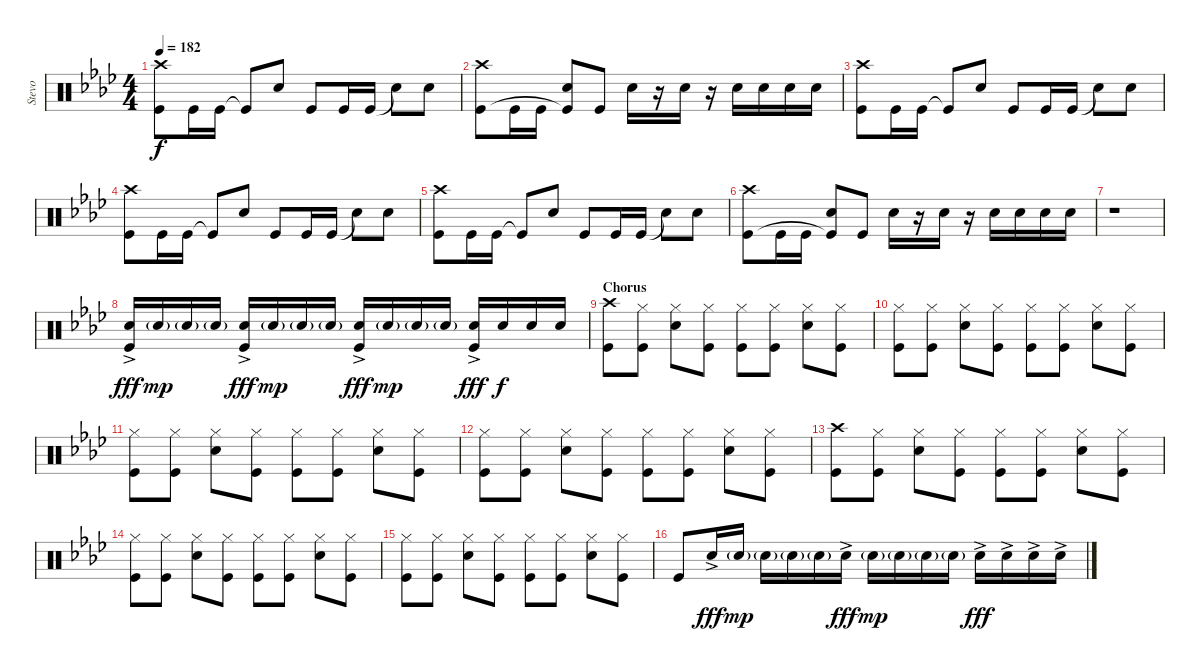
\track ("Stevo" "Stevo") {instrument percussion}
\staff {score}
\articulation defaults
\ts (4 4)
\tempo 182
\clef neutral
\ks ab
("Crash high (hit)" "Kick (hit)").8{dy f} "Kick (hit)".16 "Kick (hit)".16 "Kick (hit)"{t}.8 "Snare (hit) 2".8 "Kick (hit)".8 "Kick (hit)".16 "Kick (hit)".16 "Snare (hit)"{t}.8 "Snare (hit) 2".8 |
("Crash high (hit)" "Kick (hit)").8 "Kick (hit)".16 "Kick (hit)".16 ("Snare (hit) 2" "Kick (hit)"{t}).8 "Kick (hit)".8 "Snare (hit) 2".16 r.16 "Snare (hit) 2".16 r.16 "Snare (hit) 2".16 "Snare (hit) 2".16 "Snare (hit) 2".16 "Snare (hit) 2".16 |
("Crash high (hit)" "Kick (hit)").8 "Kick (hit)".16 "Kick (hit)".16 "Kick (hit)"{t}.8 "Snare (hit) 2".8 "Kick (hit)".8 "Kick (hit)".16 "Kick (hit)".16 "Snare (hit)"{t}.8 "Snare (hit) 2".8 |
("Crash high (hit)" "Kick (hit)").8 "Kick (hit)".16 "Kick (hit)".16 "Kick (hit)"{t}.8 "Snare (hit) 2".8 "Kick (hit)".8 "Kick (hit)".16 "Kick (hit)".16 "Snare (hit)"{t}.8 "Snare (hit) 2".8 |
("Crash high (hit)" "Kick (hit)").8 "Kick (hit)".16 "Kick (hit)".16 "Kick (hit)"{t}.8 "Snare (hit) 2".8 "Kick (hit)".8 "Kick (hit)".16 "Kick (hit)".16 "Snare (hit)"{t}.8 "Snare (hit) 2".8 |
("Crash high (hit)" "Kick (hit)").8 "Kick (hit)".16 "Kick (hit)".16 ("Snare (hit) 2" "Kick (hit)"{t}).8 "Kick (hit)".8 "Snare (hit) 2".16 r.16 "Snare (hit) 2".16 r.16 "Snare (hit) 2".16 "Snare (hit) 2".16 "Snare (hit) 2".16 "Snare (hit) 2".16 |
r.1 |
("Snare (hit) 2"{ac} "Kick (hit)").16{dy fff} "Snare (hit) 2"{g}.16{dy mp} "Snare (hit) 2"{g}.16 "Snare (hit) 2"{g}.16 ("Snare (hit) 2"{ac} "Kick (hit)").16{dy fff} "Snare (hit) 2"{g}.16{dy mp} "Snare (hit) 2"{g}.16 "Snare (hit) 2"{g}.16 ("Snare (hit) 2"{ac} "Kick (hit)").16{dy fff} "Snare (hit) 2"{g}.16{dy mp} "Snare (hit) 2"{g}.16 "Snare (hit) 2"{g}.16 ("Snare (hit) 2"{ac} "Kick (hit)").16{dy fff} "Snare (hit) 2".16{dy f} "Snare (hit) 2".16 "Snare (hit) 2".16 |
\section ("" "Chorus")
("Crash high (hit)" "Kick (hit)").8 ("Hi-Hat (closed)" "Kick (hit)").8 ("Hi-Hat (closed)" "Snare (hit) 2").8 ("Hi-Hat (closed)" "Kick (hit)").8 ("Hi-Hat (closed)" "Kick (hit)").8 ("Hi-Hat (closed)" "Kick (hit)").8 ("Hi-Hat (closed)" "Snare (hit) 2").8 ("Hi-Hat (closed)" "Kick (hit)").8 |
("Hi-Hat (closed)" "Kick (hit)").8 ("Hi-Hat (closed)" "Kick (hit)").8 ("Hi-Hat (closed)" "Snare (hit) 2").8 ("Hi-Hat (closed)" "Kick (hit)").8 ("Hi-Hat (closed)" "Kick (hit)").8 ("Hi-Hat (closed)" "Kick (hit)").8 ("Hi-Hat (closed)" "Snare (hit) 2").8 ("Hi-Hat (closed)" "Kick (hit)").8 |
("Hi-Hat (closed)" "Kick (hit)").8 ("Hi-Hat (closed)" "Kick (hit)").8 ("Hi-Hat (closed)" "Snare (hit) 2").8 ("Hi-Hat (closed)" "Kick (hit)").8 ("Hi-Hat (closed)" "Kick (hit)").8 ("Hi-Hat (closed)" "Kick (hit)").8 ("Hi-Hat (closed)" "Snare (hit) 2").8 ("Hi-Hat (closed)" "Kick (hit)").8 |
("Hi-Hat (closed)" "Kick (hit)").8 ("Hi-Hat (closed)" "Kick (hit)").8 ("Hi-Hat (closed)" "Snare (hit) 2").8 ("Hi-Hat (closed)" "Kick (hit)").8 ("Hi-Hat (closed)" "Kick (hit)").8 ("Hi-Hat (closed)" "Kick (hit)").8 ("Hi-Hat (closed)" "Snare (hit) 2").8 ("Hi-Hat (closed)" "Kick (hit)").8 |
("Crash high (hit)" "Kick (hit)").8 ("Hi-Hat (closed)" "Kick (hit)").8 ("Hi-Hat (closed)" "Snare (hit) 2").8 ("Hi-Hat (closed)" "Kick (hit)").8 ("Hi-Hat (closed)" "Kick (hit)").8 ("Hi-Hat (closed)" "Kick (hit)").8 ("Hi-Hat (closed)" "Snare (hit) 2").8 ("Hi-Hat (closed)" "Kick (hit)").8 |
("Hi-Hat (closed)" "Kick (hit)").8 ("Hi-Hat (closed)" "Kick (hit)").8 ("Hi-Hat (closed)" "Snare (hit) 2").8 ("Hi-Hat (closed)" "Kick (hit)").8 ("Hi-Hat (closed)" "Kick (hit)").8 ("Hi-Hat (closed)" "Kick (hit)").8 ("Hi-Hat (closed)" "Snare (hit) 2").8 ("Hi-Hat (closed)" "Kick (hit)").8 |
("Hi-Hat (closed)" "Kick (hit)").8 ("Hi-Hat (closed)" "Kick (hit)").8 ("Hi-Hat (closed)" "Snare (hit) 2").8 ("Hi-Hat (closed)" "Kick (hit)").8 ("Hi-Hat (closed)" "Kick (hit)").8 ("Hi-Hat (closed)" "Kick (hit)").8 ("Hi-Hat (closed)" "Snare (hit) 2").8 ("Hi-Hat (closed)" "Kick (hit)").8 |
"Kick (hit)".8 "Snare (hit) 2"{ac}.16{dy fff} "Snare (hit) 2"{g}.16{dy mp} "Snare (hit) 2"{g}.16 "Snare (hit) 2"{g}.16 "Snare (hit) 2"{g}.16 "Snare (hit) 2"{ac}.16{dy fff} "Snare (hit) 2"{g}.16{dy mp} "Snare (hit) 2"{g}.16 "Snare (hit) 2"{g}.16 "Snare (hit) 2"{g}.16 "Snare (hit) 2"{ac}.16{dy fff} "Snare (hit) 2"{ac}.16 "Snare (hit) 2"{ac}.16 "Snare (hit) 2"{ac}.16
